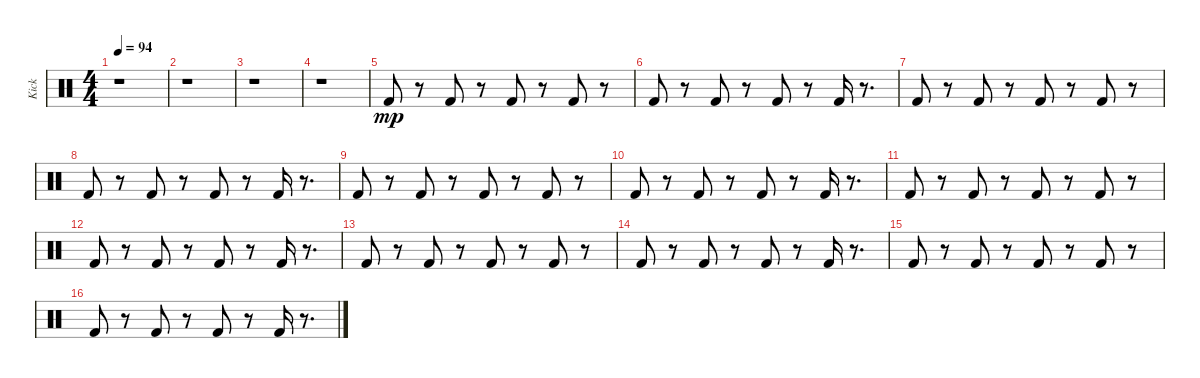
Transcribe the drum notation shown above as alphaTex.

\track ("Kick" "Kick") {instrument percussion}
\staff {score}
\articulation defaults
\ts (4 4)
\tempo 94
\clef neutral
\ks c
r.1{dy mp} |
r.1 |
r.1 |
r.1 |
"Kick (hit) 2".8 r.8 "Kick (hit) 2".8 r.8 "Kick (hit) 2".8 r.8 "Kick (hit) 2".8 r.8 |
"Kick (hit) 2".8 r.8 "Kick (hit) 2".8 r.8 "Kick (hit) 2".8 r.8 "Kick (hit) 2".16 r.8{d} |
"Kick (hit) 2".8 r.8 "Kick (hit) 2".8 r.8 "Kick (hit) 2".8 r.8 "Kick (hit) 2".8 r.8 |
"Kick (hit) 2".8 r.8 "Kick (hit) 2".8 r.8 "Kick (hit) 2".8 r.8 "Kick (hit) 2".16 r.8{d} |
"Kick (hit) 2".8 r.8 "Kick (hit) 2".8 r.8 "Kick (hit) 2".8 r.8 "Kick (hit) 2".8 r.8 |
"Kick (hit) 2".8 r.8 "Kick (hit) 2".8 r.8 "Kick (hit) 2".8 r.8 "Kick (hit) 2".16 r.8{d} |
"Kick (hit) 2".8 r.8 "Kick (hit) 2".8 r.8 "Kick (hit) 2".8 r.8 "Kick (hit) 2".8 r.8 |
"Kick (hit) 2".8 r.8 "Kick (hit) 2".8 r.8 "Kick (hit) 2".8 r.8 "Kick (hit) 2".16 r.8{d} |
"Kick (hit) 2".8 r.8 "Kick (hit) 2".8 r.8 "Kick (hit) 2".8 r.8 "Kick (hit) 2".8 r.8 |
"Kick (hit) 2".8 r.8 "Kick (hit) 2".8 r.8 "Kick (hit) 2".8 r.8 "Kick (hit) 2".16 r.8{d} |
"Kick (hit) 2".8 r.8 "Kick (hit) 2".8 r.8 "Kick (hit) 2".8 r.8 "Kick (hit) 2".8 r.8 |
"Kick (hit) 2".8 r.8 "Kick (hit) 2".8 r.8 "Kick (hit) 2".8 r.8 "Kick (hit) 2".16 r.8{d}
